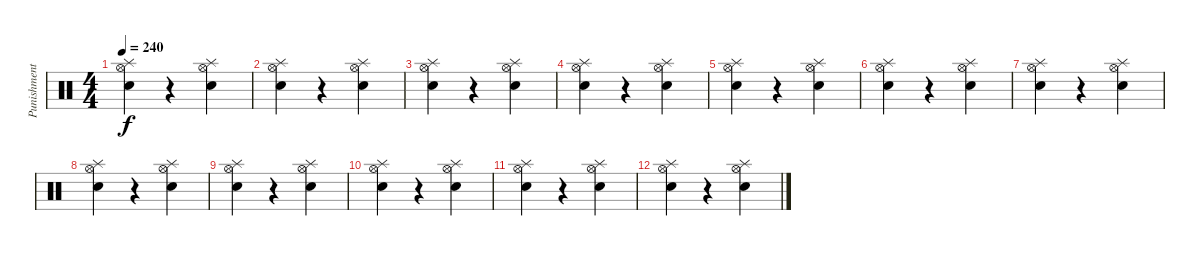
\track ("Punishment" "Punishment") {instrument percussion}
\staff {score}
\articulation defaults
\ts (4 4)
\tempo 240
\clef neutral
\ks c
("Hi-Hat (open)" "Splash (hit)" "Electric Snare (hit)").4{dy f} r.4 ("Hi-Hat (open)" "Splash (hit)" "Electric Snare (hit)").4 |
("Hi-Hat (open)" "Splash (hit)" "Electric Snare (hit)").4 r.4 ("Hi-Hat (open)" "Splash (hit)" "Electric Snare (hit)").4 |
("Hi-Hat (open)" "Splash (hit)" "Electric Snare (hit)").4 r.4 ("Hi-Hat (open)" "Splash (hit)" "Electric Snare (hit)").4 |
("Hi-Hat (open)" "Splash (hit)" "Electric Snare (hit)").4 r.4 ("Hi-Hat (open)" "Splash (hit)" "Electric Snare (hit)").4 |
("Hi-Hat (open)" "Splash (hit)" "Electric Snare (hit)").4 r.4 ("Hi-Hat (open)" "Splash (hit)" "Electric Snare (hit)").4 |
("Hi-Hat (open)" "Splash (hit)" "Electric Snare (hit)").4 r.4 ("Hi-Hat (open)" "Splash (hit)" "Electric Snare (hit)").4 |
("Hi-Hat (open)" "Splash (hit)" "Electric Snare (hit)").4 r.4 ("Hi-Hat (open)" "Splash (hit)" "Electric Snare (hit)").4 |
("Hi-Hat (open)" "Splash (hit)" "Electric Snare (hit)").4 r.4 ("Hi-Hat (open)" "Splash (hit)" "Electric Snare (hit)").4 |
("Hi-Hat (open)" "Splash (hit)" "Electric Snare (hit)").4 r.4 ("Hi-Hat (open)" "Splash (hit)" "Electric Snare (hit)").4 |
("Hi-Hat (open)" "Splash (hit)" "Electric Snare (hit)").4 r.4 ("Hi-Hat (open)" "Splash (hit)" "Electric Snare (hit)").4 |
("Hi-Hat (open)" "Splash (hit)" "Electric Snare (hit)").4 r.4 ("Hi-Hat (open)" "Splash (hit)" "Electric Snare (hit)").4 |
("Hi-Hat (open)" "Splash (hit)" "Electric Snare (hit)").4 r.4 ("Hi-Hat (open)" "Splash (hit)" "Electric Snare (hit)").4
